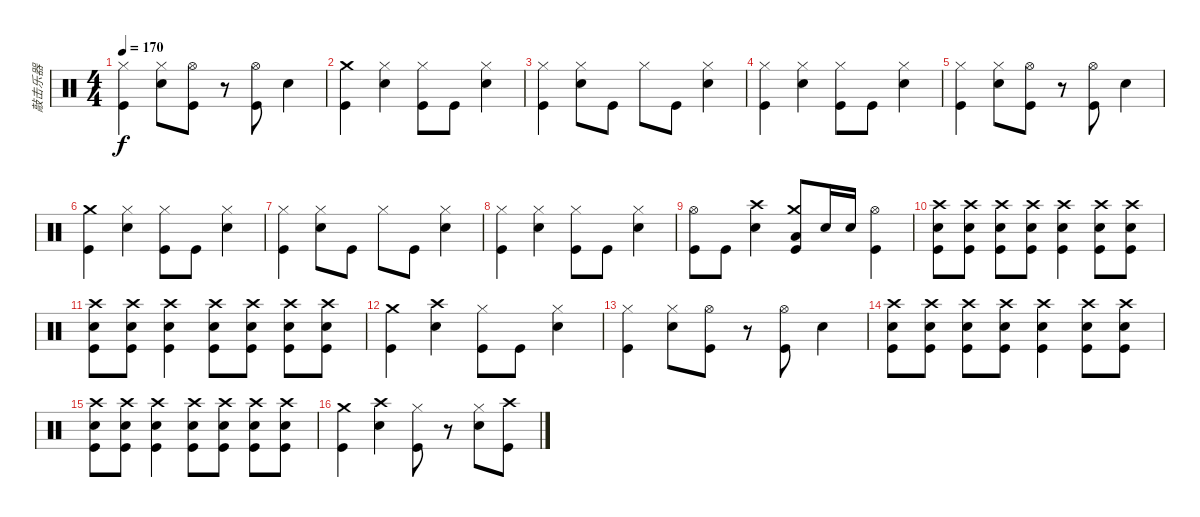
\track ("敲击乐器" "敲击乐器") {instrument percussion}
\staff {score}
\articulation defaults
\ts (4 4)
\tempo 170
\clef neutral
\ks c
("Hi-Hat (closed)" "Kick (hit)").4{dy f} ("Hi-Hat (closed)" "Snare (hit) 2").8 ("Hi-Hat (open)" "Kick (hit)").8 r.8 ("Hi-Hat (open)" "Kick (hit)").8 "Snare (hit) 2".4 |
("Crash medium (hit)" "Kick (hit)").4 ("Hi-Hat (closed)" "Snare (hit) 2").4 ("Hi-Hat (closed)" "Kick (hit)").8 "Kick (hit)".8 ("Hi-Hat (closed)" "Snare (hit) 2").4 |
("Hi-Hat (closed)" "Kick (hit)").4 ("Hi-Hat (closed)" "Snare (hit) 2").8 "Kick (hit)".8 "Hi-Hat (closed)".8 "Kick (hit)".8 ("Hi-Hat (closed)" "Snare (hit) 2").4 |
("Hi-Hat (closed)" "Kick (hit)").4 ("Hi-Hat (closed)" "Snare (hit) 2").4 ("Hi-Hat (closed)" "Kick (hit)").8 "Kick (hit)".8 ("Hi-Hat (closed)" "Snare (hit) 2").4 |
("Hi-Hat (closed)" "Kick (hit)").4 ("Hi-Hat (closed)" "Snare (hit) 2").8 ("Hi-Hat (open)" "Kick (hit)").8 r.8 ("Hi-Hat (open)" "Kick (hit)").8 "Snare (hit) 2".4 |
("Crash medium (hit)" "Kick (hit)").4 ("Hi-Hat (closed)" "Snare (hit) 2").4 ("Hi-Hat (closed)" "Kick (hit)").8 "Kick (hit)".8 ("Hi-Hat (closed)" "Snare (hit) 2").4 |
("Hi-Hat (closed)" "Kick (hit)").4 ("Hi-Hat (closed)" "Snare (hit) 2").8 "Kick (hit)".8 "Hi-Hat (closed)".8 "Kick (hit)".8 ("Hi-Hat (closed)" "Snare (hit) 2").4 |
("Hi-Hat (closed)" "Kick (hit)").4 ("Hi-Hat (closed)" "Snare (hit) 2").4 ("Hi-Hat (closed)" "Kick (hit)").8 "Kick (hit)".8 ("Hi-Hat (closed)" "Snare (hit) 2").4 |
("Hi-Hat (open)" "Kick (hit)").8 "Kick (hit)".8 ("Crash high (hit)" "Snare (hit) 2").4 ("Crash medium (hit)" "Low Floor Tom (hit)" "Kick (hit)").8 "Snare (hit) 2".16 "Snare (hit) 2".16 ("Hi-Hat (open)" "Kick (hit)").4 |
("Crash high (hit)" "Snare (hit) 2" "Kick (hit)").8 ("Crash high (hit)" "Snare (hit) 2" "Kick (hit)").8 ("Crash high (hit)" "Snare (hit) 2" "Kick (hit)").8 ("Crash high (hit)" "Snare (hit) 2" "Kick (hit)").8 ("Crash high (hit)" "Snare (hit) 2" "Kick (hit)").4 ("Crash high (hit)" "Snare (hit) 2" "Kick (hit)").8 ("Crash high (hit)" "Snare (hit) 2" "Kick (hit)").8 |
("Crash high (hit)" "Snare (hit) 2" "Kick (hit)").8 ("Crash high (hit)" "Snare (hit) 2" "Kick (hit)").8 ("Crash high (hit)" "Snare (hit) 2" "Kick (hit)").4 ("Crash high (hit)" "Snare (hit) 2" "Kick (hit)").8 ("Crash high (hit)" "Snare (hit) 2" "Kick (hit)").8 ("Crash high (hit)" "Snare (hit) 2" "Kick (hit)").8 ("Crash high (hit)" "Snare (hit) 2" "Kick (hit)").8 |
("Crash medium (hit)" "Kick (hit)").4 ("Crash high (hit)" "Snare (hit) 2").4 ("Hi-Hat (closed)" "Kick (hit)").8 "Kick (hit)".8 ("Hi-Hat (closed)" "Snare (hit) 2").4 |
("Hi-Hat (closed)" "Kick (hit)").4 ("Hi-Hat (closed)" "Snare (hit) 2").8 ("Hi-Hat (open)" "Kick (hit)").8 r.8 ("Hi-Hat (open)" "Kick (hit)").8 "Snare (hit) 2".4 |
("Crash high (hit)" "Snare (hit) 2" "Kick (hit)").8 ("Crash high (hit)" "Snare (hit) 2" "Kick (hit)").8 ("Crash high (hit)" "Snare (hit) 2" "Kick (hit)").8 ("Crash high (hit)" "Snare (hit) 2" "Kick (hit)").8 ("Crash high (hit)" "Snare (hit) 2" "Kick (hit)").4 ("Crash high (hit)" "Snare (hit) 2" "Kick (hit)").8 ("Crash high (hit)" "Snare (hit) 2" "Kick (hit)").8 |
("Crash high (hit)" "Snare (hit) 2" "Kick (hit)").8 ("Crash high (hit)" "Snare (hit) 2" "Kick (hit)").8 ("Crash high (hit)" "Snare (hit) 2" "Kick (hit)").4 ("Crash high (hit)" "Snare (hit) 2" "Kick (hit)").8 ("Crash high (hit)" "Snare (hit) 2" "Kick (hit)").8 ("Crash high (hit)" "Snare (hit) 2" "Kick (hit)").8 ("Crash high (hit)" "Snare (hit) 2" "Kick (hit)").8 |
("Crash medium (hit)" "Kick (hit)").4 ("Crash high (hit)" "Snare (hit) 2").4 ("Hi-Hat (closed)" "Kick (hit)").8 r.8 ("Hi-Hat (closed)" "Snare (hit) 2").8 ("Crash high (hit)" "Kick (hit)").8
